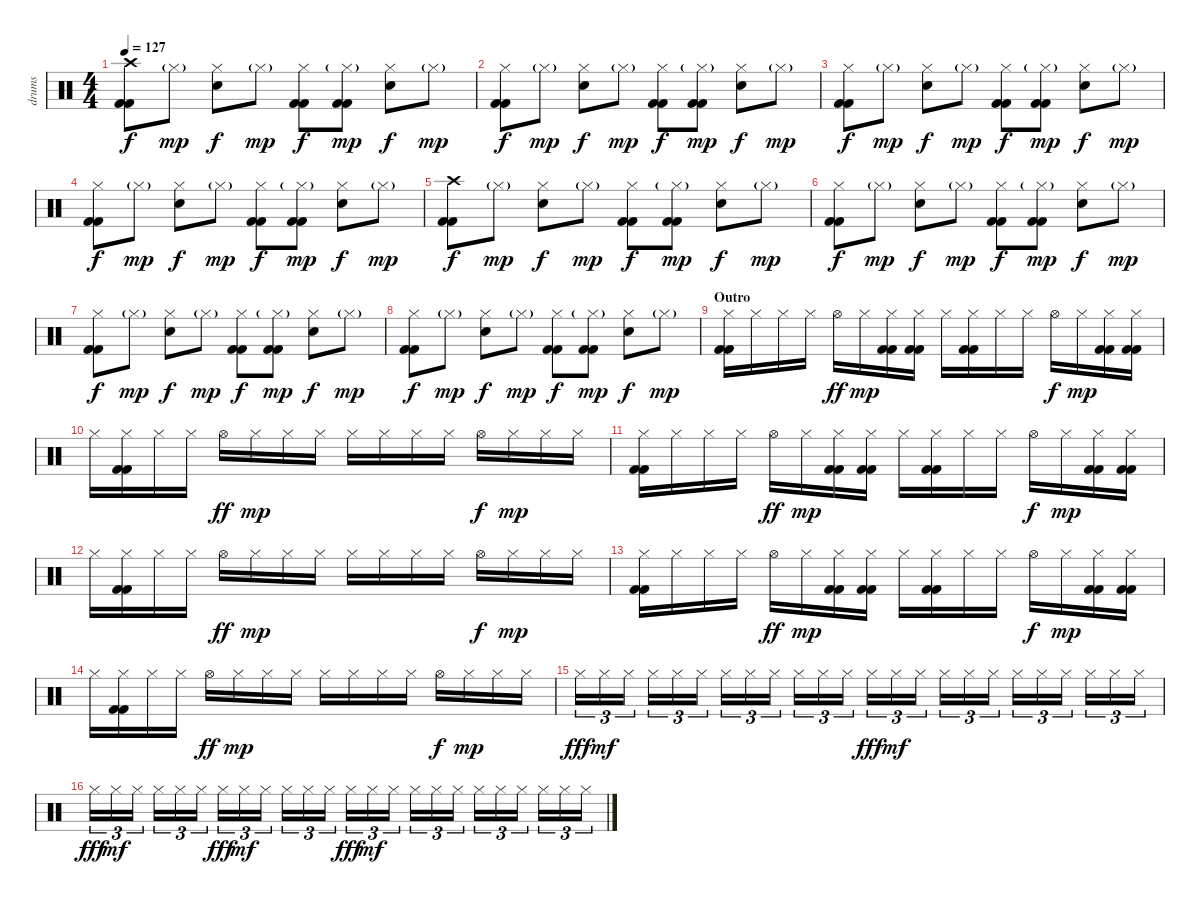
\track ("drums" "drums") {instrument percussion}
\staff {score}
\articulation defaults
\ts (4 4)
\tempo 127
\clef neutral
\ks c
("Crash high (hit)" "Kick (hit) 2" "Kick (hit) 2").8{dy f} "Hi-Hat (closed)"{g}.8{dy mp} ("Hi-Hat (closed)" "Electric Snare (hit)").8{dy f} "Hi-Hat (closed)"{g}.8{dy mp} ("Hi-Hat (closed)" "Kick (hit) 2" "Kick (hit) 2").8{dy f} ("Hi-Hat (closed)"{g} "Kick (hit) 2" "Kick (hit) 2").8{dy mp} ("Hi-Hat (closed)" "Electric Snare (hit)").8{dy f} "Hi-Hat (closed)"{g}.8{dy mp} |
("Hi-Hat (closed)" "Kick (hit) 2" "Kick (hit) 2").8{dy f} "Hi-Hat (closed)"{g}.8{dy mp} ("Hi-Hat (closed)" "Electric Snare (hit)").8{dy f} "Hi-Hat (closed)"{g}.8{dy mp} ("Hi-Hat (closed)" "Kick (hit) 2" "Kick (hit) 2").8{dy f} ("Hi-Hat (closed)"{g} "Kick (hit) 2" "Kick (hit) 2").8{dy mp} ("Hi-Hat (closed)" "Electric Snare (hit)").8{dy f} "Hi-Hat (closed)"{g}.8{dy mp} |
("Hi-Hat (closed)" "Kick (hit) 2" "Kick (hit) 2").8{dy f} "Hi-Hat (closed)"{g}.8{dy mp} ("Hi-Hat (closed)" "Electric Snare (hit)").8{dy f} "Hi-Hat (closed)"{g}.8{dy mp} ("Hi-Hat (closed)" "Kick (hit) 2" "Kick (hit) 2").8{dy f} ("Hi-Hat (closed)"{g} "Kick (hit) 2" "Kick (hit) 2").8{dy mp} ("Hi-Hat (closed)" "Electric Snare (hit)").8{dy f} "Hi-Hat (closed)"{g}.8{dy mp} |
("Hi-Hat (closed)" "Kick (hit) 2" "Kick (hit) 2").8{dy f} "Hi-Hat (closed)"{g}.8{dy mp} ("Hi-Hat (closed)" "Electric Snare (hit)").8{dy f} "Hi-Hat (closed)"{g}.8{dy mp} ("Hi-Hat (closed)" "Kick (hit) 2" "Kick (hit) 2").8{dy f} ("Hi-Hat (closed)"{g} "Kick (hit) 2" "Kick (hit) 2").8{dy mp} ("Hi-Hat (closed)" "Electric Snare (hit)").8{dy f} "Hi-Hat (closed)"{g}.8{dy mp} |
("Crash high (hit)" "Kick (hit) 2" "Kick (hit) 2").8{dy f} "Hi-Hat (closed)"{g}.8{dy mp} ("Hi-Hat (closed)" "Electric Snare (hit)").8{dy f} "Hi-Hat (closed)"{g}.8{dy mp} ("Hi-Hat (closed)" "Kick (hit) 2" "Kick (hit) 2").8{dy f} ("Hi-Hat (closed)"{g} "Kick (hit) 2" "Kick (hit) 2").8{dy mp} ("Hi-Hat (closed)" "Electric Snare (hit)").8{dy f} "Hi-Hat (closed)"{g}.8{dy mp} |
("Hi-Hat (closed)" "Kick (hit) 2" "Kick (hit) 2").8{dy f} "Hi-Hat (closed)"{g}.8{dy mp} ("Hi-Hat (closed)" "Electric Snare (hit)").8{dy f} "Hi-Hat (closed)"{g}.8{dy mp} ("Hi-Hat (closed)" "Kick (hit) 2" "Kick (hit) 2").8{dy f} ("Hi-Hat (closed)"{g} "Kick (hit) 2" "Kick (hit) 2").8{dy mp} ("Hi-Hat (closed)" "Electric Snare (hit)").8{dy f} "Hi-Hat (closed)"{g}.8{dy mp} |
("Hi-Hat (closed)" "Kick (hit) 2" "Kick (hit) 2").8{dy f} "Hi-Hat (closed)"{g}.8{dy mp} ("Hi-Hat (closed)" "Electric Snare (hit)").8{dy f} "Hi-Hat (closed)"{g}.8{dy mp} ("Hi-Hat (closed)" "Kick (hit) 2" "Kick (hit) 2").8{dy f} ("Hi-Hat (closed)"{g} "Kick (hit) 2" "Kick (hit) 2").8{dy mp} ("Hi-Hat (closed)" "Electric Snare (hit)").8{dy f} "Hi-Hat (closed)"{g}.8{dy mp} |
("Hi-Hat (closed)" "Kick (hit) 2" "Kick (hit) 2").8{dy f} "Hi-Hat (closed)"{g}.8{dy mp} ("Hi-Hat (closed)" "Electric Snare (hit)").8{dy f} "Hi-Hat (closed)"{g}.8{dy mp} ("Hi-Hat (closed)" "Kick (hit) 2" "Kick (hit) 2").8{dy f} ("Hi-Hat (closed)"{g} "Kick (hit) 2" "Kick (hit) 2").8{dy mp} ("Hi-Hat (closed)" "Electric Snare (hit)").8{dy f} "Hi-Hat (closed)"{g}.8{dy mp} |
\section ("" "Outro")
("Hi-Hat (closed)" "Kick (hit) 2" "Kick (hit) 2").16 "Hi-Hat (closed)".16 "Hi-Hat (closed)".16 "Hi-Hat (closed)".16 "Hi-Hat (open)".16{dy ff} "Hi-Hat (closed)".16{dy mp} ("Hi-Hat (closed)" "Kick (hit) 2" "Kick (hit) 2").16 ("Hi-Hat (closed)" "Kick (hit) 2" "Kick (hit) 2").16 "Hi-Hat (closed)".16 ("Hi-Hat (closed)" "Kick (hit) 2" "Kick (hit) 2").16 "Hi-Hat (closed)".16 "Hi-Hat (closed)".16 "Hi-Hat (open)".16{dy f} "Hi-Hat (closed)".16{dy mp} ("Hi-Hat (closed)" "Kick (hit) 2" "Kick (hit) 2").16 ("Hi-Hat (closed)" "Kick (hit) 2" "Kick (hit) 2").16 |
"Hi-Hat (closed)".16 ("Hi-Hat (closed)" "Kick (hit) 2" "Kick (hit) 2").16 "Hi-Hat (closed)".16 "Hi-Hat (closed)".16 "Hi-Hat (open)".16{dy ff} "Hi-Hat (closed)".16{dy mp} "Hi-Hat (closed)".16 "Hi-Hat (closed)".16 "Hi-Hat (closed)".16 "Hi-Hat (closed)".16 "Hi-Hat (closed)".16 "Hi-Hat (closed)".16 "Hi-Hat (open)".16{dy f} "Hi-Hat (closed)".16{dy mp} "Hi-Hat (closed)".16 "Hi-Hat (closed)".16 |
("Hi-Hat (closed)" "Kick (hit) 2" "Kick (hit) 2").16 "Hi-Hat (closed)".16 "Hi-Hat (closed)".16 "Hi-Hat (closed)".16 "Hi-Hat (open)".16{dy ff} "Hi-Hat (closed)".16{dy mp} ("Hi-Hat (closed)" "Kick (hit) 2" "Kick (hit) 2").16 ("Hi-Hat (closed)" "Kick (hit) 2" "Kick (hit) 2").16 "Hi-Hat (closed)".16 ("Hi-Hat (closed)" "Kick (hit) 2" "Kick (hit) 2").16 "Hi-Hat (closed)".16 "Hi-Hat (closed)".16 "Hi-Hat (open)".16{dy f} "Hi-Hat (closed)".16{dy mp} ("Hi-Hat (closed)" "Kick (hit) 2" "Kick (hit) 2").16 ("Hi-Hat (closed)" "Kick (hit) 2" "Kick (hit) 2").16 |
"Hi-Hat (closed)".16 ("Hi-Hat (closed)" "Kick (hit) 2" "Kick (hit) 2").16 "Hi-Hat (closed)".16 "Hi-Hat (closed)".16 "Hi-Hat (open)".16{dy ff} "Hi-Hat (closed)".16{dy mp} "Hi-Hat (closed)".16 "Hi-Hat (closed)".16 "Hi-Hat (closed)".16 "Hi-Hat (closed)".16 "Hi-Hat (closed)".16 "Hi-Hat (closed)".16 "Hi-Hat (open)".16{dy f} "Hi-Hat (closed)".16{dy mp} "Hi-Hat (closed)".16 "Hi-Hat (closed)".16 |
("Hi-Hat (closed)" "Kick (hit) 2" "Kick (hit) 2").16 "Hi-Hat (closed)".16 "Hi-Hat (closed)".16 "Hi-Hat (closed)".16 "Hi-Hat (open)".16{dy ff} "Hi-Hat (closed)".16{dy mp} ("Hi-Hat (closed)" "Kick (hit) 2" "Kick (hit) 2").16 ("Hi-Hat (closed)" "Kick (hit) 2" "Kick (hit) 2").16 "Hi-Hat (closed)".16 ("Hi-Hat (closed)" "Kick (hit) 2" "Kick (hit) 2").16 "Hi-Hat (closed)".16 "Hi-Hat (closed)".16 "Hi-Hat (open)".16{dy f} "Hi-Hat (closed)".16{dy mp} ("Hi-Hat (closed)" "Kick (hit) 2" "Kick (hit) 2").16 ("Hi-Hat (closed)" "Kick (hit) 2" "Kick (hit) 2").16 |
"Hi-Hat (closed)".16 ("Hi-Hat (closed)" "Kick (hit) 2" "Kick (hit) 2").16 "Hi-Hat (closed)".16 "Hi-Hat (closed)".16 "Hi-Hat (open)".16{dy ff} "Hi-Hat (closed)".16{dy mp} "Hi-Hat (closed)".16 "Hi-Hat (closed)".16 "Hi-Hat (closed)".16 "Hi-Hat (closed)".16 "Hi-Hat (closed)".16 "Hi-Hat (closed)".16 "Hi-Hat (open)".16{dy f} "Hi-Hat (closed)".16{dy mp} "Hi-Hat (closed)".16 "Hi-Hat (closed)".16 |
"Hi-Hat (closed)".16{tu (3 2) dy fff} "Hi-Hat (closed)".16{tu (3 2) dy mf} "Hi-Hat (closed)".16{tu (3 2)} "Hi-Hat (closed)".16{tu (3 2)} "Hi-Hat (closed)".16{tu (3 2)} "Hi-Hat (closed)".16{tu (3 2)} "Hi-Hat (closed)".16{tu (3 2)} "Hi-Hat (closed)".16{tu (3 2)} "Hi-Hat (closed)".16{tu (3 2)} "Hi-Hat (closed)".16{tu (3 2)} "Hi-Hat (closed)".16{tu (3 2)} "Hi-Hat (closed)".16{tu (3 2)} "Hi-Hat (closed)".16{tu (3 2) dy fff} "Hi-Hat (closed)".16{tu (3 2) dy mf} "Hi-Hat (closed)".16{tu (3 2)} "Hi-Hat (closed)".16{tu (3 2)} "Hi-Hat (closed)".16{tu (3 2)} "Hi-Hat (closed)".16{tu (3 2)} "Hi-Hat (closed)".16{tu (3 2)} "Hi-Hat (closed)".16{tu (3 2)} "Hi-Hat (closed)".16{tu (3 2)} "Hi-Hat (closed)".16{tu (3 2)} "Hi-Hat (closed)".16{tu (3 2)} "Hi-Hat (closed)".16{tu (3 2)} |
"Hi-Hat (closed)".16{tu (3 2) dy fff} "Hi-Hat (closed)".16{tu (3 2) dy mf} "Hi-Hat (closed)".16{tu (3 2)} "Hi-Hat (closed)".16{tu (3 2)} "Hi-Hat (closed)".16{tu (3 2)} "Hi-Hat (closed)".16{tu (3 2)} "Hi-Hat (closed)".16{tu (3 2) dy fff} "Hi-Hat (closed)".16{tu (3 2) dy mf} "Hi-Hat (closed)".16{tu (3 2)} "Hi-Hat (closed)".16{tu (3 2)} "Hi-Hat (closed)".16{tu (3 2)} "Hi-Hat (closed)".16{tu (3 2)} "Hi-Hat (closed)".16{tu (3 2) dy fff} "Hi-Hat (closed)".16{tu (3 2) dy mf} "Hi-Hat (closed)".16{tu (3 2)} "Hi-Hat (closed)".16{tu (3 2)} "Hi-Hat (closed)".16{tu (3 2)} "Hi-Hat (closed)".16{tu (3 2)} "Hi-Hat (closed)".16{tu (3 2)} "Hi-Hat (closed)".16{tu (3 2)} "Hi-Hat (closed)".16{tu (3 2)} "Hi-Hat (closed)".16{tu (3 2)} "Hi-Hat (closed)".16{tu (3 2)} "Hi-Hat (closed)".16{tu (3 2)}
